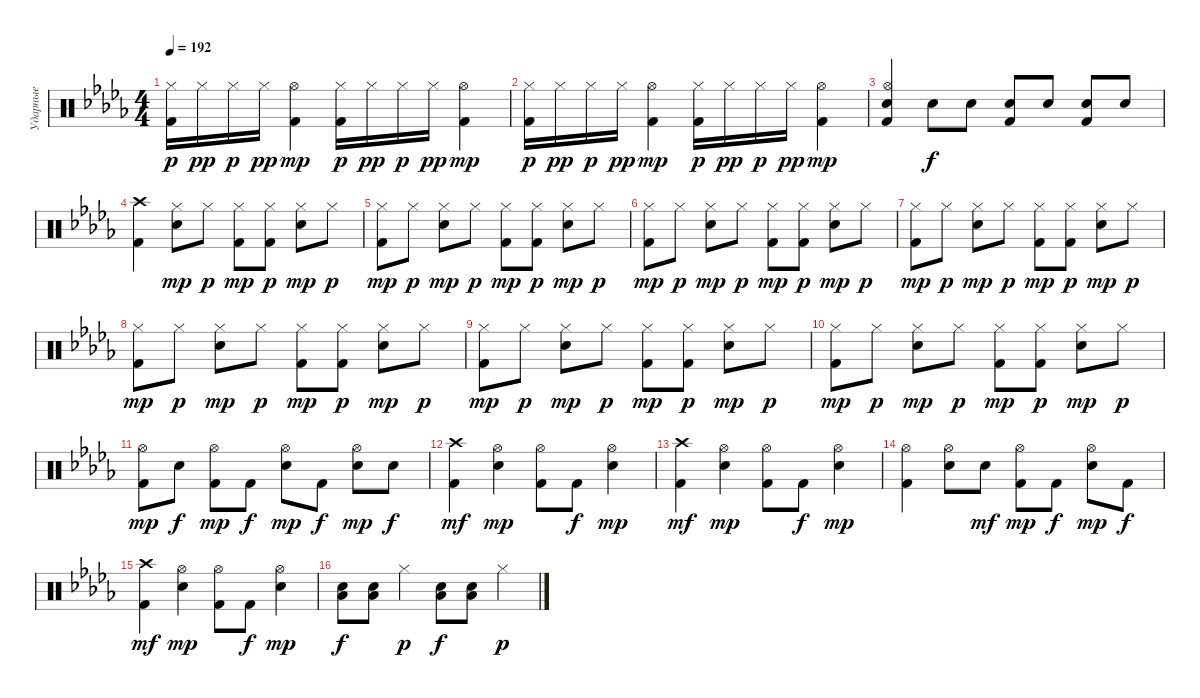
\track ("Ударные" "Ударные") {instrument percussion}
\staff {score}
\articulation defaults
\ts (4 4)
\tempo 192
\clef neutral
\ks bbminor
("Hi-Hat (closed)" "Kick (hit) 2").16{dy p} "Hi-Hat (closed)".16{dy pp} "Hi-Hat (closed)".16{dy p} "Hi-Hat (closed)".16{dy pp} ("Hi-Hat (open)" "Kick (hit) 2").4{dy mp} ("Hi-Hat (closed)" "Kick (hit) 2").16{dy p} "Hi-Hat (closed)".16{dy pp} "Hi-Hat (closed)".16{dy p} "Hi-Hat (closed)".16{dy pp} ("Hi-Hat (open)" "Kick (hit) 2").4{dy mp} |
("Hi-Hat (closed)" "Kick (hit) 2").16{dy p} "Hi-Hat (closed)".16{dy pp} "Hi-Hat (closed)".16{dy p} "Hi-Hat (closed)".16{dy pp} ("Hi-Hat (open)" "Kick (hit) 2").4{dy mp} ("Hi-Hat (closed)" "Kick (hit) 2").16{dy p} "Hi-Hat (closed)".16{dy pp} "Hi-Hat (closed)".16{dy p} "Hi-Hat (closed)".16{dy pp} ("Hi-Hat (open)" "Kick (hit) 2").4{dy mp} |
("Hi-Hat (open)" "Electric Snare (hit)" "Kick (hit) 2").4 "Electric Snare (hit)".8{dy f} "Electric Snare (hit)".8 ("Electric Snare (hit)" "Kick (hit) 2").8 "Electric Snare (hit)".8 ("Electric Snare (hit)" "Kick (hit) 2").8 "Electric Snare (hit)".8 |
("Crash high (hit)" "Kick (hit) 2").4 ("Hi-Hat (closed)" "Electric Snare (hit)").8{dy mp} "Hi-Hat (closed)".8{dy p} ("Hi-Hat (closed)" "Kick (hit) 2").8{dy mp} ("Hi-Hat (closed)" "Kick (hit) 2").8{dy p} ("Hi-Hat (closed)" "Electric Snare (hit)").8{dy mp} "Hi-Hat (closed)".8{dy p} |
("Hi-Hat (closed)" "Kick (hit) 2").8{dy mp} "Hi-Hat (closed)".8{dy p} ("Hi-Hat (closed)" "Electric Snare (hit)").8{dy mp} "Hi-Hat (closed)".8{dy p} ("Hi-Hat (closed)" "Kick (hit) 2").8{dy mp} ("Hi-Hat (closed)" "Kick (hit) 2").8{dy p} ("Hi-Hat (closed)" "Electric Snare (hit)").8{dy mp} "Hi-Hat (closed)".8{dy p} |
("Hi-Hat (closed)" "Kick (hit) 2").8{dy mp} "Hi-Hat (closed)".8{dy p} ("Hi-Hat (closed)" "Electric Snare (hit)").8{dy mp} "Hi-Hat (closed)".8{dy p} ("Hi-Hat (closed)" "Kick (hit) 2").8{dy mp} ("Hi-Hat (closed)" "Kick (hit) 2").8{dy p} ("Hi-Hat (closed)" "Electric Snare (hit)").8{dy mp} "Hi-Hat (closed)".8{dy p} |
("Hi-Hat (closed)" "Kick (hit) 2").8{dy mp} "Hi-Hat (closed)".8{dy p} ("Hi-Hat (closed)" "Electric Snare (hit)").8{dy mp} "Hi-Hat (closed)".8{dy p} ("Hi-Hat (closed)" "Kick (hit) 2").8{dy mp} ("Hi-Hat (closed)" "Kick (hit) 2").8{dy p} ("Hi-Hat (closed)" "Electric Snare (hit)").8{dy mp} "Hi-Hat (closed)".8{dy p} |
("Hi-Hat (closed)" "Kick (hit) 2").8{dy mp} "Hi-Hat (closed)".8{dy p} ("Hi-Hat (closed)" "Electric Snare (hit)").8{dy mp} "Hi-Hat (closed)".8{dy p} ("Hi-Hat (closed)" "Kick (hit) 2").8{dy mp} ("Hi-Hat (closed)" "Kick (hit) 2").8{dy p} ("Hi-Hat (closed)" "Electric Snare (hit)").8{dy mp} "Hi-Hat (closed)".8{dy p} |
("Hi-Hat (closed)" "Kick (hit) 2").8{dy mp} "Hi-Hat (closed)".8{dy p} ("Hi-Hat (closed)" "Electric Snare (hit)").8{dy mp} "Hi-Hat (closed)".8{dy p} ("Hi-Hat (closed)" "Kick (hit) 2").8{dy mp} ("Hi-Hat (closed)" "Kick (hit) 2").8{dy p} ("Hi-Hat (closed)" "Electric Snare (hit)").8{dy mp} "Hi-Hat (closed)".8{dy p} |
("Hi-Hat (closed)" "Kick (hit) 2").8{dy mp} "Hi-Hat (closed)".8{dy p} ("Hi-Hat (closed)" "Electric Snare (hit)").8{dy mp} "Hi-Hat (closed)".8{dy p} ("Hi-Hat (closed)" "Kick (hit) 2").8{dy mp} ("Hi-Hat (closed)" "Kick (hit) 2").8{dy p} ("Hi-Hat (closed)" "Electric Snare (hit)").8{dy mp} "Hi-Hat (closed)".8{dy p} |
("Hi-Hat (open)" "Kick (hit) 2").8{dy mp} "Electric Snare (hit)".8{dy f} ("Hi-Hat (open)" "Kick (hit) 2").8{dy mp} "Kick (hit) 2".8{dy f} ("Hi-Hat (open)" "Electric Snare (hit)").8{dy mp} "Kick (hit) 2".8{dy f} ("Hi-Hat (open)" "Electric Snare (hit)").8{dy mp} "Electric Snare (hit)".8{dy f} |
("Crash high (hit)" "Kick (hit) 2").4{dy mf} ("Hi-Hat (open)" "Electric Snare (hit)").4{dy mp} ("Hi-Hat (open)" "Kick (hit) 2").8 "Kick (hit) 2".8{dy f} ("Hi-Hat (open)" "Electric Snare (hit)").4{dy mp} |
("Crash high (hit)" "Kick (hit) 2").4{dy mf} ("Hi-Hat (open)" "Electric Snare (hit)").4{dy mp} ("Hi-Hat (open)" "Kick (hit) 2").8 "Kick (hit) 2".8{dy f} ("Hi-Hat (open)" "Electric Snare (hit)").4{dy mp} |
("Hi-Hat (open)" "Kick (hit) 2").4 ("Hi-Hat (open)" "Electric Snare (hit)").8 "Electric Snare (hit)".8{dy mf} ("Hi-Hat (open)" "Kick (hit) 2").8{dy mp} "Kick (hit) 2".8{dy f} ("Hi-Hat (open)" "Electric Snare (hit)").8{dy mp} "Kick (hit) 2".8{dy f} |
("Crash high (hit)" "Kick (hit) 2").4{dy mf} ("Hi-Hat (open)" "Electric Snare (hit)").4{dy mp} ("Hi-Hat (open)" "Kick (hit) 2").8 "Kick (hit) 2".8{dy f} ("Hi-Hat (open)" "Electric Snare (hit)").4{dy mp} |
("Electric Snare (hit)" "Low Tom (hit)").8{dy f} ("Electric Snare (hit)" "Low Tom (hit)").8 "Hi-Hat (closed)".4{dy p} ("Electric Snare (hit)" "Low Tom (hit)").8{dy f} ("Electric Snare (hit)" "Low Tom (hit)").8 "Hi-Hat (closed)".4{dy p}
